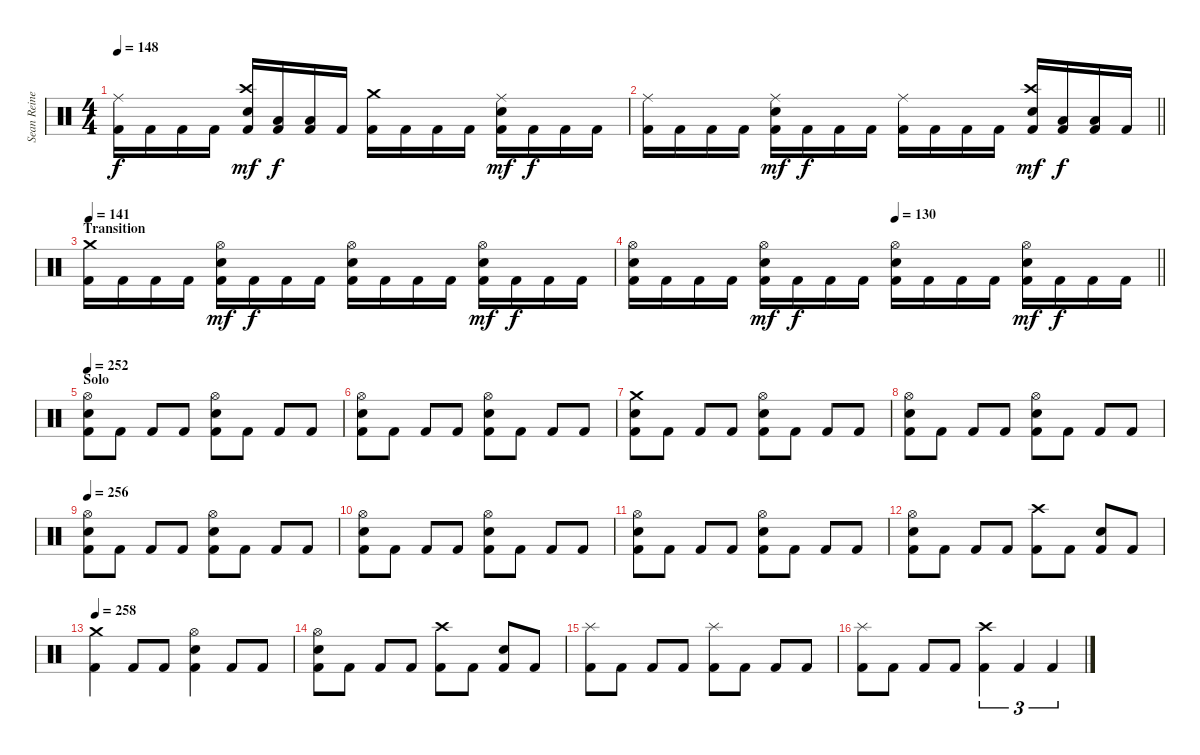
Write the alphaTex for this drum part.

\track ("Sean Reinert" "Sean Reine") {instrument percussion}
\staff {score}
\articulation defaults
\ts (4 4)
\tempo 148
\clef neutral
\ks c
("Ride (middle)" "Kick (hit) 2").16{dy f} "Kick (hit) 2".16 "Kick (hit) 2".16 "Kick (hit) 2".16 ("Crash high (hit)" "Snare (hit) 2" "Kick (hit) 2").16{dy mf} ("Low Tom (hit)" "Kick (hit) 2").16{dy f} ("Low Tom (hit)" "Kick (hit) 2").16 "Kick (hit) 2".16 ("Crash medium (hit)" "Kick (hit) 2").16 "Kick (hit) 2".16 "Kick (hit) 2".16 "Kick (hit) 2".16 ("Ride (middle)" "Snare (hit) 2" "Kick (hit) 2").16{dy mf} "Kick (hit) 2".16{dy f} "Kick (hit) 2".16 "Kick (hit) 2".16 |
\barLineRight lightlight
("Ride (middle)" "Kick (hit) 2").16 "Kick (hit) 2".16 "Kick (hit) 2".16 "Kick (hit) 2".16 ("Ride (middle)" "Snare (hit) 2" "Kick (hit) 2").16{dy mf} "Kick (hit) 2".16{dy f} "Kick (hit) 2".16 "Kick (hit) 2".16 ("Ride (middle)" "Kick (hit) 2").16 "Kick (hit) 2".16 "Kick (hit) 2".16 "Kick (hit) 2".16 ("Crash high (hit)" "Snare (hit) 2" "Kick (hit) 2").16{dy mf} ("Low Tom (hit)" "Kick (hit) 2").16{dy f} ("Low Tom (hit)" "Kick (hit) 2").16 "Kick (hit) 2".16 |
\section ("" "Transition")
\tempo 141
("Crash medium (hit)" "Kick (hit) 2").16 "Kick (hit) 2".16 "Kick (hit) 2".16 "Kick (hit) 2".16 ("Hi-Hat (open)" "Snare (hit) 2" "Kick (hit) 2").16{dy mf} "Kick (hit) 2".16{dy f} "Kick (hit) 2".16 "Kick (hit) 2".16 ("Hi-Hat (open)" "Snare (hit) 2" "Kick (hit) 2").16 "Kick (hit) 2".16 "Kick (hit) 2".16 "Kick (hit) 2".16 ("Hi-Hat (open)" "Snare (hit) 2" "Kick (hit) 2").16{dy mf} "Kick (hit) 2".16{dy f} "Kick (hit) 2".16 "Kick (hit) 2".16 |
\tempo (130 0.5)
\barLineRight lightlight
("Hi-Hat (open)" "Snare (hit) 2" "Kick (hit) 2").16 "Kick (hit) 2".16 "Kick (hit) 2".16 "Kick (hit) 2".16 ("Hi-Hat (open)" "Snare (hit) 2" "Kick (hit) 2").16{dy mf} "Kick (hit) 2".16{dy f} "Kick (hit) 2".16 "Kick (hit) 2".16 ("Hi-Hat (open)" "Snare (hit) 2" "Kick (hit) 2").16 "Kick (hit) 2".16 "Kick (hit) 2".16 "Kick (hit) 2".16 ("Hi-Hat (open)" "Snare (hit) 2" "Kick (hit) 2").16{dy mf} "Kick (hit) 2".16{dy f} "Kick (hit) 2".16 "Kick (hit) 2".16 |
\section ("" "Solo")
\tempo 252
("Hi-Hat (open)" "Snare (hit) 2" "Kick (hit) 2").8 "Kick (hit) 2".8 "Kick (hit) 2".8 "Kick (hit) 2".8 ("Hi-Hat (open)" "Snare (hit) 2" "Kick (hit) 2").8 "Kick (hit) 2".8 "Kick (hit) 2".8 "Kick (hit) 2".8 |
("Hi-Hat (open)" "Snare (hit) 2" "Kick (hit) 2").8 "Kick (hit) 2".8 "Kick (hit) 2".8 "Kick (hit) 2".8 ("Hi-Hat (open)" "Snare (hit) 2" "Kick (hit) 2").8 "Kick (hit) 2".8 "Kick (hit) 2".8 "Kick (hit) 2".8 |
("Crash medium (hit)" "Snare (hit) 2" "Kick (hit) 2").8 "Kick (hit) 2".8 "Kick (hit) 2".8 "Kick (hit) 2".8 ("Hi-Hat (open)" "Snare (hit) 2" "Kick (hit) 2").8 "Kick (hit) 2".8 "Kick (hit) 2".8 "Kick (hit) 2".8 |
("Hi-Hat (open)" "Snare (hit) 2" "Kick (hit) 2").8 "Kick (hit) 2".8 "Kick (hit) 2".8 "Kick (hit) 2".8 ("Hi-Hat (open)" "Snare (hit) 2" "Kick (hit) 2").8 "Kick (hit) 2".8 "Kick (hit) 2".8 "Kick (hit) 2".8 |
\tempo 256
("Hi-Hat (open)" "Snare (hit) 2" "Kick (hit) 2").8 "Kick (hit) 2".8 "Kick (hit) 2".8 "Kick (hit) 2".8 ("Hi-Hat (open)" "Snare (hit) 2" "Kick (hit) 2").8 "Kick (hit) 2".8 "Kick (hit) 2".8 "Kick (hit) 2".8 |
("Hi-Hat (open)" "Snare (hit) 2" "Kick (hit) 2").8 "Kick (hit) 2".8 "Kick (hit) 2".8 "Kick (hit) 2".8 ("Hi-Hat (open)" "Snare (hit) 2" "Kick (hit) 2").8 "Kick (hit) 2".8 "Kick (hit) 2".8 "Kick (hit) 2".8 |
("Hi-Hat (open)" "Snare (hit) 2" "Kick (hit) 2").8 "Kick (hit) 2".8 "Kick (hit) 2".8 "Kick (hit) 2".8 ("Hi-Hat (open)" "Snare (hit) 2" "Kick (hit) 2").8 "Kick (hit) 2".8 "Kick (hit) 2".8 "Kick (hit) 2".8 |
("Hi-Hat (open)" "Snare (hit) 2" "Kick (hit) 2").8 "Kick (hit) 2".8 "Kick (hit) 2".8 "Kick (hit) 2".8 ("Crash high (hit)" "Kick (hit) 2").8 "Kick (hit) 2".8 ("Snare (hit) 2" "Kick (hit) 2").8 "Kick (hit) 2".8 |
\tempo 258
("Crash medium (hit)" "Kick (hit) 2").4 "Kick (hit) 2".8 "Kick (hit) 2".8 ("Hi-Hat (open)" "Snare (hit) 2" "Kick (hit) 2").4 "Kick (hit) 2".8 "Kick (hit) 2".8 |
("Hi-Hat (open)" "Snare (hit) 2" "Kick (hit) 2").8 "Kick (hit) 2".8 "Kick (hit) 2".8 "Kick (hit) 2".8 ("Crash high (hit)" "Kick (hit) 2").8 "Kick (hit) 2".8 ("Snare (hit) 2" "Kick (hit) 2").8 "Kick (hit) 2".8 |
("Splash (hit)" "Kick (hit) 2").8 "Kick (hit) 2".8 "Kick (hit) 2".8 "Kick (hit) 2".8 ("Splash (hit)" "Kick (hit) 2").8 "Kick (hit) 2".8 "Kick (hit) 2".8 "Kick (hit) 2".8 |
("Splash (hit)" "Kick (hit) 2").8 "Kick (hit) 2".8 "Kick (hit) 2".8 "Kick (hit) 2".8 ("Crash high (hit)" "Kick (hit) 2").4{tu (3 2)} "Kick (hit) 2".4{tu (3 2)} "Kick (hit) 2".4{tu (3 2)}
